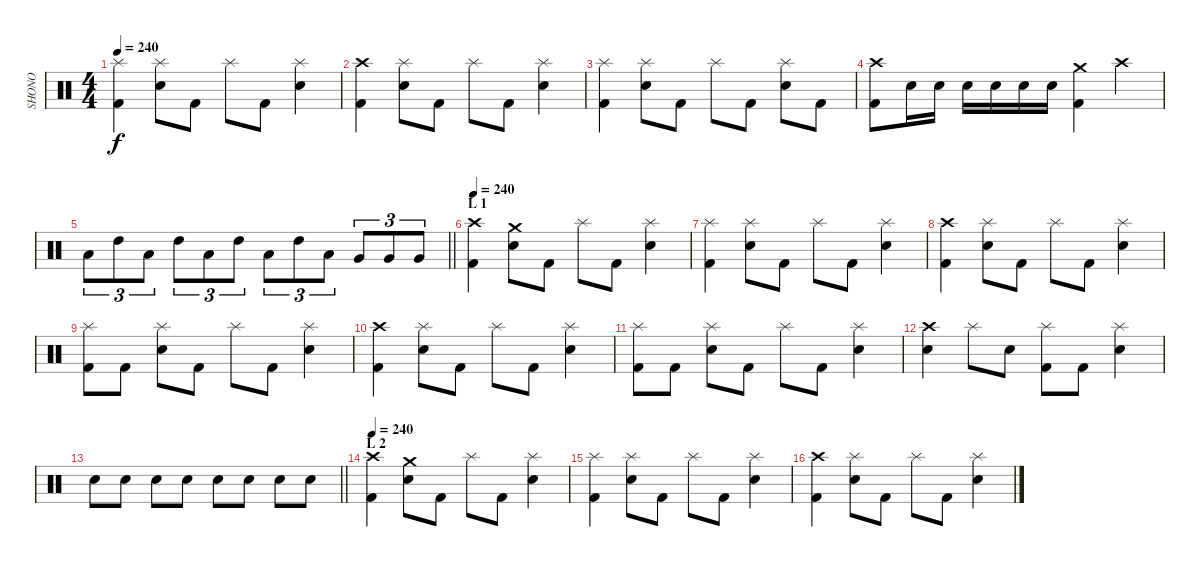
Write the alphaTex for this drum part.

\track ("SHONO" "SHONO") {instrument percussion}
\staff {score}
\articulation defaults
\ts (4 4)
\tempo 240
\clef neutral
\ks c
("Splash (hit)" "Kick (hit) 2").4{dy f} ("Splash (hit)" "Snare (hit) 2").8 "Kick (hit) 2".8 "Splash (hit)".8 "Kick (hit) 2".8 ("Splash (hit)" "Snare (hit) 2").4 |
("Crash high (hit)" "Kick (hit) 2").4 ("Splash (hit)" "Snare (hit) 2").8 "Kick (hit) 2".8 "Splash (hit)".8 "Kick (hit) 2".8 ("Splash (hit)" "Snare (hit) 2").4 |
("Splash (hit)" "Kick (hit) 2").4 ("Splash (hit)" "Snare (hit) 2").8 "Kick (hit) 2".8 "Splash (hit)".8 "Kick (hit) 2".8 ("Splash (hit)" "Snare (hit) 2").8 "Kick (hit) 2".8 |
("Crash high (hit)" "Kick (hit) 2").8 "Snare (hit) 2".16 "Snare (hit) 2".16 "Snare (hit) 2".16 "Snare (hit) 2".16 "Snare (hit) 2".16 "Snare (hit) 2".16 ("Crash medium (hit)" "Kick (hit) 2").4 "Crash high (hit)".4 |
\barLineRight lightlight "Low Tom (hit)".8{tu (3 2)} "High Tom (hit)".8{tu (3 2)} "Low Tom (hit)".8{tu (3 2)} "High Tom (hit)".8{tu (3 2)} "Low Tom (hit)".8{tu (3 2)} "High Tom (hit)".8{tu (3 2)} "Low Tom (hit)".8{tu (3 2)} "High Tom (hit)".8{tu (3 2)} "Low Tom (hit)".8{tu (3 2)} "Very Low Tom (hit)".8{tu (3 2)} "Very Low Tom (hit)".8{tu (3 2)} "Very Low Tom (hit)".8{tu (3 2)}
|
\section ("" "L 1")
\tempo 240
("Crash high (hit)" "Kick (hit) 2").4 ("Crash medium (hit)" "Snare (hit) 2").8 "Kick (hit) 2".8 "Splash (hit)".8 "Kick (hit) 2".8 ("Splash (hit)" "Snare (hit) 2").4 |
("Splash (hit)" "Kick (hit) 2").4 ("Splash (hit)" "Snare (hit) 2").8 "Kick (hit) 2".8 "Splash (hit)".8 "Kick (hit) 2".8 ("Splash (hit)" "Snare (hit) 2").4 |
("Crash high (hit)" "Kick (hit) 2").4 ("Splash (hit)" "Snare (hit) 2").8 "Kick (hit) 2".8 "Splash (hit)".8 "Kick (hit) 2".8 ("Splash (hit)" "Snare (hit) 2").4 |
("Splash (hit)" "Kick (hit) 2").8 "Kick (hit) 2".8 ("Splash (hit)" "Snare (hit) 2").8 "Kick (hit) 2".8 "Splash (hit)".8 "Kick (hit) 2".8 ("Splash (hit)" "Snare (hit) 2").4 |
("Crash high (hit)" "Kick (hit) 2").4 ("Splash (hit)" "Snare (hit) 2").8 "Kick (hit) 2".8 "Splash (hit)".8 "Kick (hit) 2".8 ("Splash (hit)" "Snare (hit) 2").4 |
("Splash (hit)" "Kick (hit) 2").8 "Kick (hit) 2".8 ("Splash (hit)" "Snare (hit) 2").8 "Kick (hit) 2".8 "Splash (hit)".8 "Kick (hit) 2".8 ("Splash (hit)" "Snare (hit) 2").4 |
("Crash high (hit)" "Snare (hit) 2").4 "Splash (hit)".8 "Snare (hit) 2".8 ("Splash (hit)" "Kick (hit) 2").8 "Kick (hit) 2".8 ("Splash (hit)" "Snare (hit) 2").4 |
\barLineRight lightlight "Snare (hit) 2".8 "Snare (hit) 2".8 "Snare (hit) 2".8 "Snare (hit) 2".8 "Snare (hit) 2".8 "Snare (hit) 2".8 "Snare (hit) 2".8 "Snare (hit) 2".8
|
\section ("" "L 2")
\tempo 240
("Crash high (hit)" "Kick (hit) 2").4 ("Crash medium (hit)" "Snare (hit) 2").8 "Kick (hit) 2".8 "Splash (hit)".8 "Kick (hit) 2".8 ("Splash (hit)" "Snare (hit) 2").4 |
("Splash (hit)" "Kick (hit) 2").4 ("Splash (hit)" "Snare (hit) 2").8 "Kick (hit) 2".8 "Splash (hit)".8 "Kick (hit) 2".8 ("Splash (hit)" "Snare (hit) 2").4 |
("Crash high (hit)" "Kick (hit) 2").4 ("Splash (hit)" "Snare (hit) 2").8 "Kick (hit) 2".8 "Splash (hit)".8 "Kick (hit) 2".8 ("Splash (hit)" "Snare (hit) 2").4
